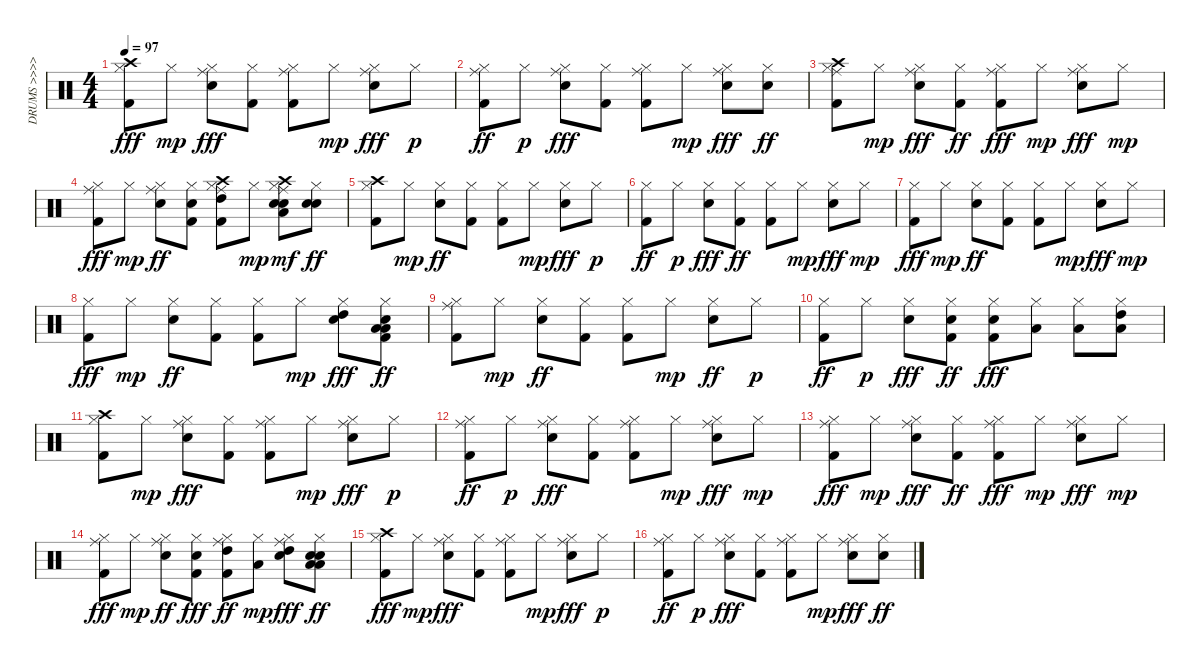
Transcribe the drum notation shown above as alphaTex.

\track ("DRUMS >>>>>>" "DRUMS >>>>") {instrument percussion}
\staff {score}
\articulation defaults
\ts (4 4)
\tempo 97
\clef neutral
\ks c
("Hi-Hat (closed)" "Crash high (hit)" "Kick (hit) 2").8{dy fff} "Hi-Hat (closed)".8{dy mp} ("Hi-Hat (closed)" "Ride (middle)" "Snare (hit) 2").8{dy fff} ("Hi-Hat (closed)" "Kick (hit) 2").8 ("Hi-Hat (closed)" "Ride (middle)" "Kick (hit) 2").8 "Hi-Hat (closed)".8{dy mp} ("Hi-Hat (closed)" "Ride (middle)" "Snare (hit) 2").8{dy fff} "Hi-Hat (closed)".8{dy p} |
("Hi-Hat (closed)" "Ride (middle)" "Kick (hit) 2").8{dy ff} "Hi-Hat (closed)".8{dy p} ("Hi-Hat (closed)" "Ride (middle)" "Snare (hit) 2").8{dy fff} ("Hi-Hat (closed)" "Kick (hit) 2").8 ("Hi-Hat (closed)" "Ride (middle)" "Kick (hit) 2").8 "Hi-Hat (closed)".8{dy mp} ("Hi-Hat (closed)" "Ride (middle)" "Snare (hit) 2").8{dy fff} ("Hi-Hat (closed)" "Snare (hit) 2").8{dy ff} |
("Hi-Hat (closed)" "Ride (middle)" "Kick (hit) 2" "Crash high (hit)").8 "Hi-Hat (closed)".8{dy mp} ("Hi-Hat (closed)" "Ride (middle)" "Snare (hit) 2").8{dy fff} ("Hi-Hat (closed)" "Kick (hit) 2").8{dy ff} ("Hi-Hat (closed)" "Ride (middle)" "Kick (hit) 2").8{dy fff} "Hi-Hat (closed)".8{dy mp} ("Hi-Hat (closed)" "Ride (middle)" "Snare (hit) 2").8{dy fff} "Hi-Hat (closed)".8{dy mp} |
("Hi-Hat (closed)" "Ride (middle)" "Kick (hit) 2").8{dy fff} "Hi-Hat (closed)".8{dy mp} ("Hi-Hat (closed)" "Ride (middle)" "Snare (hit) 2").8{dy ff} ("Hi-Hat (closed)" "Kick (hit) 2" "Snare (hit) 2").8 ("Hi-Hat (closed)" "Ride (middle)" "Kick (hit) 2" "Crash high (hit)" "High Tom (hit)").8 "Hi-Hat (closed)".8{dy mp} ("Hi-Hat (closed)" "Ride (middle)" "Snare (hit) 2" "Crash high (hit)" "Low Tom (hit)" "Snare (hit) 2").8{dy mf} ("Hi-Hat (closed)" "Snare (hit) 2" "Snare (hit) 2").8{dy ff} |
("Hi-Hat (closed)" "Kick (hit) 2" "Crash high (hit)").8 "Hi-Hat (closed)".8{dy mp} ("Hi-Hat (closed)" "Snare (hit) 2").8{dy ff} ("Hi-Hat (closed)" "Kick (hit) 2").8 ("Hi-Hat (closed)" "Kick (hit) 2").8 "Hi-Hat (closed)".8{dy mp} ("Hi-Hat (closed)" "Snare (hit) 2").8{dy fff} "Hi-Hat (closed)".8{dy p} |
("Hi-Hat (closed)" "Kick (hit) 2").8{dy ff} "Hi-Hat (closed)".8{dy p} ("Hi-Hat (closed)" "Snare (hit) 2").8{dy fff} ("Hi-Hat (closed)" "Kick (hit) 2").8{dy ff} ("Hi-Hat (closed)" "Kick (hit) 2").8 "Hi-Hat (closed)".8{dy mp} ("Hi-Hat (closed)" "Snare (hit) 2").8{dy fff} "Hi-Hat (closed)".8{dy mp} |
("Hi-Hat (closed)" "Kick (hit) 2").8{dy fff} "Hi-Hat (closed)".8{dy mp} ("Hi-Hat (closed)" "Snare (hit) 2").8{dy ff} ("Hi-Hat (closed)" "Kick (hit) 2").8 ("Hi-Hat (closed)" "Kick (hit) 2").8 "Hi-Hat (closed)".8{dy mp} ("Hi-Hat (closed)" "Snare (hit) 2").8{dy fff} "Hi-Hat (closed)".8{dy mp} |
("Hi-Hat (closed)" "Kick (hit) 2").8{dy fff} "Hi-Hat (closed)".8{dy mp} ("Hi-Hat (closed)" "Snare (hit) 2").8{dy ff} ("Hi-Hat (closed)" "Kick (hit) 2").8 ("Hi-Hat (closed)" "Kick (hit) 2").8 "Hi-Hat (closed)".8{dy mp} ("Hi-Hat (closed)" "High Tom (hit)" "Snare (hit) 2").8{dy fff} ("Hi-Hat (closed)" "Low Tom (hit)" "Snare (hit) 2" "Kick (hit) 2" "Low Floor Tom (hit)").8{dy ff} |
("Hi-Hat (closed)" "Kick (hit) 2" "Ride (middle)").8 "Hi-Hat (closed)".8{dy mp} ("Hi-Hat (closed)" "Snare (hit) 2").8{dy ff} ("Hi-Hat (closed)" "Kick (hit) 2").8 ("Hi-Hat (closed)" "Kick (hit) 2").8 "Hi-Hat (closed)".8{dy mp} ("Hi-Hat (closed)" "Snare (hit) 2").8{dy ff} "Hi-Hat (closed)".8{dy p} |
("Hi-Hat (closed)" "Kick (hit) 2").8{dy ff} "Hi-Hat (closed)".8{dy p} ("Hi-Hat (closed)" "Snare (hit) 2").8{dy fff} ("Hi-Hat (closed)" "Kick (hit) 2" "Snare (hit) 2").8{dy ff} ("Hi-Hat (closed)" "Kick (hit) 2" "Snare (hit) 2").8{dy fff} ("Hi-Hat (closed)" "Low Tom (hit)").8 ("Hi-Hat (closed)" "Low Floor Tom (hit)").8 ("Hi-Hat (closed)" "High Tom (hit)" "Low Tom (hit)").8 |
("Hi-Hat (closed)" "Crash high (hit)" "Kick (hit) 2").8 "Hi-Hat (closed)".8{dy mp} ("Hi-Hat (closed)" "Ride (middle)" "Snare (hit) 2").8{dy fff} ("Hi-Hat (closed)" "Kick (hit) 2").8 ("Hi-Hat (closed)" "Ride (middle)" "Kick (hit) 2").8 "Hi-Hat (closed)".8{dy mp} ("Hi-Hat (closed)" "Ride (middle)" "Snare (hit) 2").8{dy fff} "Hi-Hat (closed)".8{dy p} |
("Hi-Hat (closed)" "Ride (middle)" "Kick (hit) 2").8{dy ff} "Hi-Hat (closed)".8{dy p} ("Hi-Hat (closed)" "Ride (middle)" "Snare (hit) 2").8{dy fff} ("Hi-Hat (closed)" "Kick (hit) 2").8 ("Hi-Hat (closed)" "Ride (middle)" "Kick (hit) 2").8 "Hi-Hat (closed)".8{dy mp} ("Hi-Hat (closed)" "Ride (middle)" "Snare (hit) 2").8{dy fff} "Hi-Hat (closed)".8{dy mp} |
("Hi-Hat (closed)" "Ride (middle)" "Kick (hit) 2").8{dy fff} "Hi-Hat (closed)".8{dy mp} ("Hi-Hat (closed)" "Ride (middle)" "Snare (hit) 2").8{dy fff} ("Hi-Hat (closed)" "Kick (hit) 2").8{dy ff} ("Hi-Hat (closed)" "Ride (middle)" "Kick (hit) 2").8{dy fff} "Hi-Hat (closed)".8{dy mp} ("Hi-Hat (closed)" "Ride (middle)" "Snare (hit) 2").8{dy fff} "Hi-Hat (closed)".8{dy mp} |
("Hi-Hat (closed)" "Ride (middle)" "Kick (hit) 2").8{dy fff} "Hi-Hat (closed)".8{dy mp} ("Hi-Hat (closed)" "Ride (middle)" "Snare (hit) 2").8{dy ff} ("Hi-Hat (closed)" "Kick (hit) 2" "Snare (hit) 2").8{dy fff} ("Hi-Hat (closed)" "Ride (middle)" "Kick (hit) 2" "High Tom (hit)").8{dy ff} ("Low Tom (hit)" "Hi-Hat (closed)").8{dy mp} ("High Tom (hit)" "Hi-Hat (closed)" "Ride (middle)" "Snare (hit) 2").8{dy fff} ("Snare (hit) 2" "Low Tom (hit)" "Hi-Hat (closed)" "Snare (hit) 2" "Low Floor Tom (hit)").8{dy ff} |
("Hi-Hat (closed)" "Crash high (hit)" "Kick (hit) 2").8{dy fff} "Hi-Hat (closed)".8{dy mp} ("Hi-Hat (closed)" "Ride (middle)" "Snare (hit) 2").8{dy fff} ("Hi-Hat (closed)" "Kick (hit) 2").8 ("Hi-Hat (closed)" "Ride (middle)" "Kick (hit) 2").8 "Hi-Hat (closed)".8{dy mp} ("Hi-Hat (closed)" "Ride (middle)" "Snare (hit) 2").8{dy fff} "Hi-Hat (closed)".8{dy p} |
("Hi-Hat (closed)" "Ride (middle)" "Kick (hit) 2").8{dy ff} "Hi-Hat (closed)".8{dy p} ("Hi-Hat (closed)" "Ride (middle)" "Snare (hit) 2").8{dy fff} ("Hi-Hat (closed)" "Kick (hit) 2").8 ("Hi-Hat (closed)" "Ride (middle)" "Kick (hit) 2").8 "Hi-Hat (closed)".8{dy mp} ("Hi-Hat (closed)" "Ride (middle)" "Snare (hit) 2").8{dy fff} ("Hi-Hat (closed)" "Snare (hit) 2").8{dy ff}
